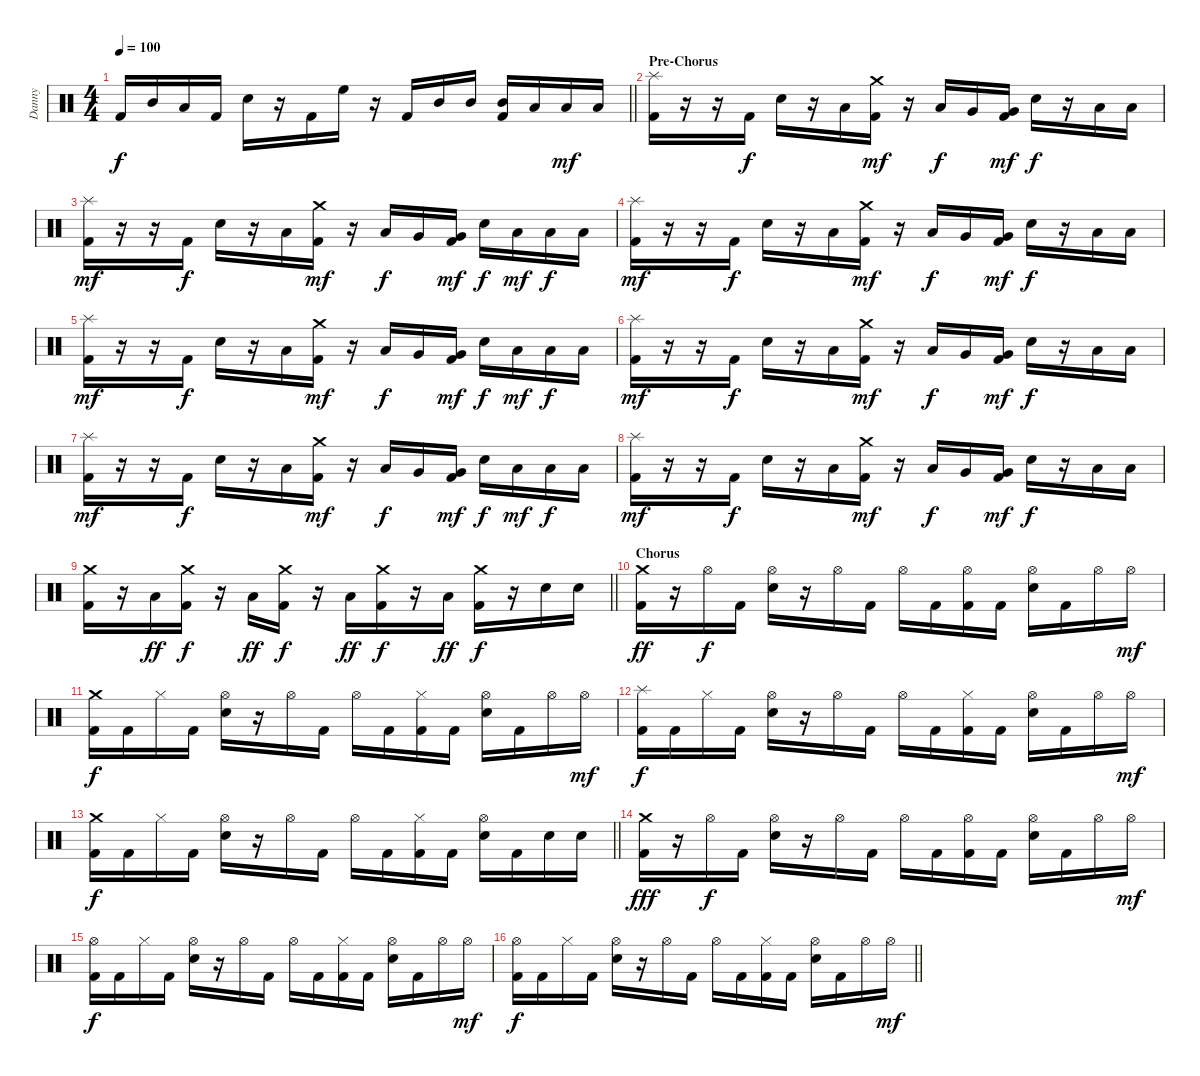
\track ("Danny" "Danny") {instrument percussion}
\staff {score}
\articulation defaults
\ts (4 4)
\tempo 100
\clef neutral
\barLineRight lightlight
\ks c "Kick (hit) 2".16{dy f} "Mid Tom (hit)".16 "Low Tom (hit)".16 "Kick (hit) 2".16 "Electric Snare (hit)".16
r.16 "Kick (hit) 2".16 "High Floor Tom (hit)".16 r.16 "Kick (hit) 2".16 "Mid Tom (hit)".16 "Mid Tom (hit)".16 ("Mid Tom (hit)" "Kick (hit) 2").16 "Low Tom (hit)".16 "Low Tom (hit)".16{dy mf} "Low Tom (hit)".16 |
\section ("" "Pre-Chorus")
("Splash (hit)" "Kick (hit) 2").16 r.16 r.16 "Kick (hit) 2".16{dy f} "Electric Snare (hit)".16 r.16 "Low Tom (hit)".16 ("Crash medium (hit)" "Kick (hit) 2").16{dy mf} r.16 "Low Tom (hit)".16{dy f} "Very Low Tom (hit)".16 ("Very Low Tom (hit)" "Kick (hit) 2").16{dy mf} "Electric Snare (hit)".16{dy f} r.16 "Low Tom (hit)".16 "Low Tom (hit)".16 |
("Splash (hit)" "Kick (hit) 2").16{dy mf} r.16 r.16 "Kick (hit) 2".16{dy f} "Electric Snare (hit)".16 r.16 "Low Tom (hit)".16 ("Crash medium (hit)" "Kick (hit) 2").16{dy mf} r.16 "Low Tom (hit)".16{dy f} "Very Low Tom (hit)".16 ("Very Low Tom (hit)" "Kick (hit) 2").16{dy mf} "Electric Snare (hit)".16{dy f} "Low Tom (hit)".16{dy mf} "Low Tom (hit)".16{dy f} "Low Tom (hit)".16 |
("Splash (hit)" "Kick (hit) 2").16{dy mf} r.16 r.16 "Kick (hit) 2".16{dy f} "Electric Snare (hit)".16 r.16 "Low Tom (hit)".16 ("Crash medium (hit)" "Kick (hit) 2").16{dy mf} r.16 "Low Tom (hit)".16{dy f} "Very Low Tom (hit)".16 ("Very Low Tom (hit)" "Kick (hit) 2").16{dy mf} "Electric Snare (hit)".16{dy f} r.16 "Low Tom (hit)".16 "Low Tom (hit)".16 |
("Splash (hit)" "Kick (hit) 2").16{dy mf} r.16 r.16 "Kick (hit) 2".16{dy f} "Electric Snare (hit)".16 r.16 "Low Tom (hit)".16 ("Crash medium (hit)" "Kick (hit) 2").16{dy mf} r.16 "Low Tom (hit)".16{dy f} "Very Low Tom (hit)".16 ("Very Low Tom (hit)" "Kick (hit) 2").16{dy mf} "Electric Snare (hit)".16{dy f} "Low Tom (hit)".16{dy mf} "Low Tom (hit)".16{dy f} "Low Tom (hit)".16 |
("Splash (hit)" "Kick (hit) 2").16{dy mf} r.16 r.16 "Kick (hit) 2".16{dy f} "Electric Snare (hit)".16 r.16 "Low Tom (hit)".16 ("Crash medium (hit)" "Kick (hit) 2").16{dy mf} r.16 "Low Tom (hit)".16{dy f} "Very Low Tom (hit)".16 ("Very Low Tom (hit)" "Kick (hit) 2").16{dy mf} "Electric Snare (hit)".16{dy f} r.16 "Low Tom (hit)".16 "Low Tom (hit)".16 |
("Splash (hit)" "Kick (hit) 2").16{dy mf} r.16 r.16 "Kick (hit) 2".16{dy f} "Electric Snare (hit)".16 r.16 "Low Tom (hit)".16 ("Crash medium (hit)" "Kick (hit) 2").16{dy mf} r.16 "Low Tom (hit)".16{dy f} "Very Low Tom (hit)".16 ("Very Low Tom (hit)" "Kick (hit) 2").16{dy mf} "Electric Snare (hit)".16{dy f} "Low Tom (hit)".16{dy mf} "Low Tom (hit)".16{dy f} "Low Tom (hit)".16 |
("Splash (hit)" "Kick (hit) 2").16{dy mf} r.16 r.16 "Kick (hit) 2".16{dy f} "Electric Snare (hit)".16 r.16 "Low Tom (hit)".16 ("Crash medium (hit)" "Kick (hit) 2").16{dy mf} r.16 "Low Tom (hit)".16{dy f} "Very Low Tom (hit)".16 ("Very Low Tom (hit)" "Kick (hit) 2").16{dy mf} "Electric Snare (hit)".16{dy f} r.16 "Low Tom (hit)".16 "Low Tom (hit)".16 |
\barLineRight lightlight
("Crash medium (hit)" "Kick (hit) 2").16 r.16 "Low Tom (hit)".16{dy ff} ("Crash medium (hit)" "Kick (hit) 2").16{dy f} r.16 "Low Tom (hit)".16{dy ff} ("Crash medium (hit)" "Kick (hit) 2").16{dy f} r.16 "Low Tom (hit)".16{dy ff} ("Crash medium (hit)" "Kick (hit) 2").16{dy f} r.16 "Low Tom (hit)".16{dy ff} ("Crash medium (hit)" "Kick (hit) 2").16{dy f} r.16 "Electric Snare (hit)".16 "Electric Snare (hit)".16 |
\section ("" "Chorus")
("Crash medium (hit)" "Kick (hit) 2").16{dy ff} r.16 "Hi-Hat (open)".16{dy f} "Kick (hit) 2".16 ("Hi-Hat (open)" "Electric Snare (hit)").16 r.16 "Hi-Hat (open)".16 "Kick (hit) 2".16 "Hi-Hat (open)".16 "Kick (hit) 2".16 ("Hi-Hat (open)" "Kick (hit) 2").16 "Kick (hit) 2".16 ("Hi-Hat (open)" "Electric Snare (hit)").16 "Kick (hit) 2".16 "Hi-Hat (open)".16 "Hi-Hat (open)".16{dy mf} |
("Crash medium (hit)" "Kick (hit) 2").16{dy f} "Kick (hit) 2".16 "Hi-Hat (closed)".16 "Kick (hit) 2".16 ("Hi-Hat (open)" "Electric Snare (hit)").16 r.16 "Hi-Hat (open)".16 "Kick (hit) 2".16 "Hi-Hat (open)".16 "Kick (hit) 2".16 ("Hi-Hat (closed)" "Kick (hit) 2").16 "Kick (hit) 2".16 ("Hi-Hat (open)" "Electric Snare (hit)").16 "Kick (hit) 2".16 "Hi-Hat (open)".16 "Hi-Hat (open)".16{dy mf} |
("Splash (hit)" "Kick (hit) 2").16{dy f} "Kick (hit) 2".16 "Hi-Hat (closed)".16 "Kick (hit) 2".16 ("Hi-Hat (open)" "Electric Snare (hit)").16 r.16 "Hi-Hat (open)".16 "Kick (hit) 2".16 "Hi-Hat (open)".16 "Kick (hit) 2".16 ("Hi-Hat (closed)" "Kick (hit) 2").16 "Kick (hit) 2".16 ("Hi-Hat (open)" "Electric Snare (hit)").16 "Kick (hit) 2".16 "Hi-Hat (open)".16 "Hi-Hat (open)".16{dy mf} |
\barLineRight lightlight
("Crash medium (hit)" "Kick (hit) 2").16{dy f} "Kick (hit) 2".16 "Hi-Hat (closed)".16 "Kick (hit) 2".16 ("Hi-Hat (open)" "Electric Snare (hit)").16 r.16 "Hi-Hat (open)".16 "Kick (hit) 2".16 "Hi-Hat (open)".16 "Kick (hit) 2".16 ("Hi-Hat (closed)" "Kick (hit) 2").16 "Kick (hit) 2".16 ("Hi-Hat (open)" "Electric Snare (hit)").16 "Kick (hit) 2".16 "Electric Snare (hit)".16 "Electric Snare (hit)".16 |
("Crash medium (hit)" "Kick (hit) 2").16{dy fff} r.16 "Hi-Hat (open)".16{dy f} "Kick (hit) 2".16 ("Hi-Hat (open)" "Electric Snare (hit)").16 r.16 "Hi-Hat (open)".16 "Kick (hit) 2".16 "Hi-Hat (open)".16 "Kick (hit) 2".16 ("Hi-Hat (open)" "Kick (hit) 2").16 "Kick (hit) 2".16 ("Hi-Hat (open)" "Electric Snare (hit)").16 "Kick (hit) 2".16 "Hi-Hat (open)".16 "Hi-Hat (open)".16{dy mf} |
("Hi-Hat (open)" "Kick (hit) 2").16{dy f} "Kick (hit) 2".16 "Hi-Hat (closed)".16 "Kick (hit) 2".16 ("Hi-Hat (open)" "Electric Snare (hit)").16 r.16 "Hi-Hat (open)".16 "Kick (hit) 2".16 "Hi-Hat (open)".16 "Kick (hit) 2".16 ("Hi-Hat (closed)" "Kick (hit) 2").16 "Kick (hit) 2".16 ("Hi-Hat (open)" "Electric Snare (hit)").16 "Kick (hit) 2".16 "Hi-Hat (open)".16 "Hi-Hat (open)".16{dy mf} |
\barLineRight lightlight
("Hi-Hat (open)" "Kick (hit) 2").16{dy f} "Kick (hit) 2".16 "Hi-Hat (closed)".16 "Kick (hit) 2".16 ("Hi-Hat (open)" "Electric Snare (hit)").16 r.16 "Hi-Hat (open)".16 "Kick (hit) 2".16 "Hi-Hat (open)".16 "Kick (hit) 2".16 ("Hi-Hat (closed)" "Kick (hit) 2").16 "Kick (hit) 2".16 ("Hi-Hat (open)" "Electric Snare (hit)").16 "Kick (hit) 2".16 "Hi-Hat (open)".16 "Hi-Hat (open)".16{dy mf}
